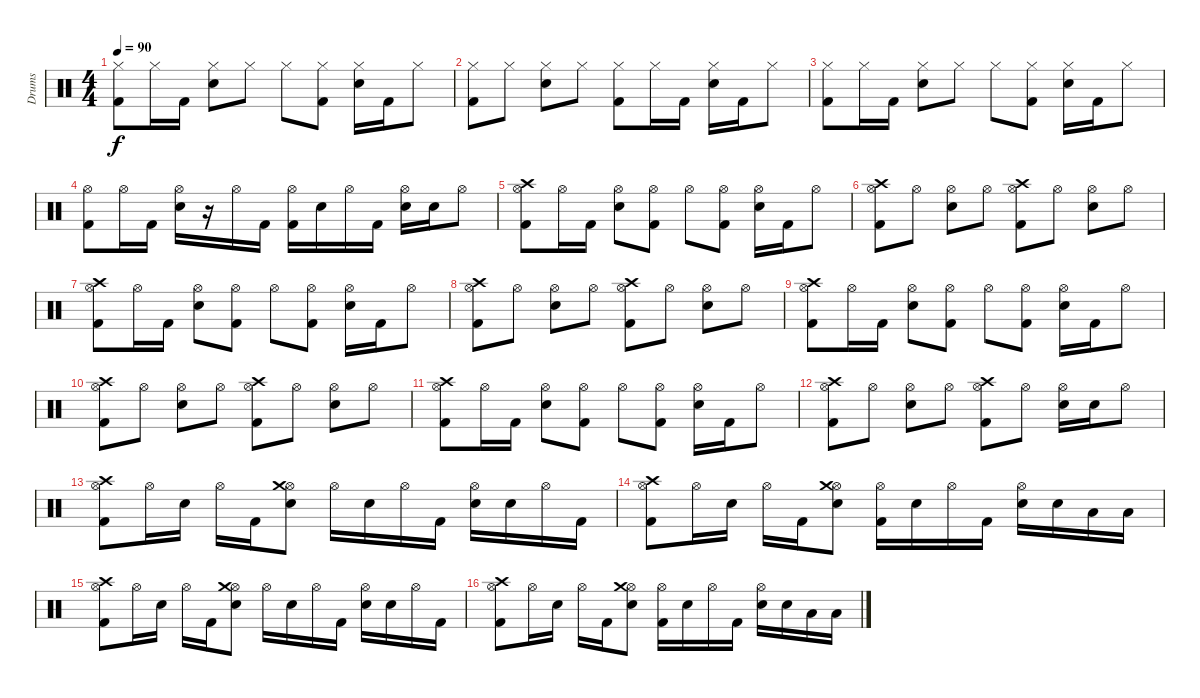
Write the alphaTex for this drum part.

\track ("Drums" "Drums") {instrument percussion}
\staff {score}
\articulation defaults
\ts (4 4)
\tempo 90
\clef neutral
\ks c
("Hi-Hat (closed)" "Kick (hit) 2").8{dy f} "Hi-Hat (closed)".16 "Kick (hit) 2".16 ("Hi-Hat (closed)" "Snare (hit) 2").8 "Hi-Hat (closed)".8 "Hi-Hat (closed)".8 ("Hi-Hat (closed)" "Kick (hit) 2").8 ("Hi-Hat (closed)" "Snare (hit) 2").16 "Kick (hit) 2".16 "Hi-Hat (closed)".8 |
("Hi-Hat (closed)" "Kick (hit) 2").8 "Hi-Hat (closed)".8 ("Hi-Hat (closed)" "Snare (hit) 2").8 "Hi-Hat (closed)".8 ("Hi-Hat (closed)" "Kick (hit) 2").8 "Hi-Hat (closed)".16 "Kick (hit) 2".16 ("Hi-Hat (closed)" "Snare (hit) 2").16 "Kick (hit) 2".16 "Hi-Hat (closed)".8 |
("Hi-Hat (closed)" "Kick (hit) 2").8 "Hi-Hat (closed)".16 "Kick (hit) 2".16 ("Hi-Hat (closed)" "Snare (hit) 2").8 "Hi-Hat (closed)".8 "Hi-Hat (closed)".8 ("Hi-Hat (closed)" "Kick (hit) 2").8 ("Hi-Hat (closed)" "Snare (hit) 2").16 "Kick (hit) 2".16 "Hi-Hat (closed)".8 |
("Hi-Hat (open)" "Kick (hit) 2").8 "Hi-Hat (open)".16 "Kick (hit) 2".16 ("Hi-Hat (open)" "Snare (hit) 2").16 r.16 "Hi-Hat (open)".16 "Kick (hit) 2".16 ("Hi-Hat (open)" "Kick (hit) 2").16 "Snare (hit) 2".16 "Hi-Hat (open)".16 "Kick (hit) 2".16 ("Hi-Hat (open)" "Snare (hit) 2").16 "Snare (hit) 2".16 "Hi-Hat (open)".8 |
("Crash high (hit)" "Hi-Hat (open)" "Kick (hit) 2").8 "Hi-Hat (open)".16 "Kick (hit) 2".16 ("Hi-Hat (open)" "Snare (hit) 2").8 ("Hi-Hat (open)" "Kick (hit) 2").8 "Hi-Hat (open)".8 ("Kick (hit) 2" "Hi-Hat (open)").8 ("Snare (hit) 2" "Hi-Hat (open)").16 "Kick (hit) 2".16 "Hi-Hat (open)".8 |
("Crash high (hit)" "Hi-Hat (open)" "Kick (hit) 2").8 "Hi-Hat (open)".8 ("Snare (hit) 2" "Hi-Hat (open)").8 "Hi-Hat (open)".8 ("Crash high (hit)" "Kick (hit) 2" "Hi-Hat (open)").8 "Hi-Hat (open)".8 ("Snare (hit) 2" "Hi-Hat (open)").8 "Hi-Hat (open)".8 |
("Crash high (hit)" "Hi-Hat (open)" "Kick (hit) 2").8 "Hi-Hat (open)".16 "Kick (hit) 2".16 ("Hi-Hat (open)" "Snare (hit) 2").8 ("Hi-Hat (open)" "Kick (hit) 2").8 "Hi-Hat (open)".8 ("Kick (hit) 2" "Hi-Hat (open)").8 ("Snare (hit) 2" "Hi-Hat (open)").16 "Kick (hit) 2".16 "Hi-Hat (open)".8 |
("Crash high (hit)" "Hi-Hat (open)" "Kick (hit) 2").8 "Hi-Hat (open)".8 ("Snare (hit) 2" "Hi-Hat (open)").8 "Hi-Hat (open)".8 ("Crash high (hit)" "Kick (hit) 2" "Hi-Hat (open)").8 "Hi-Hat (open)".8 ("Snare (hit) 2" "Hi-Hat (open)").8 "Hi-Hat (open)".8 |
("Crash high (hit)" "Hi-Hat (open)" "Kick (hit) 2").8 "Hi-Hat (open)".16 "Kick (hit) 2".16 ("Hi-Hat (open)" "Snare (hit) 2").8 ("Hi-Hat (open)" "Kick (hit) 2").8 "Hi-Hat (open)".8 ("Kick (hit) 2" "Hi-Hat (open)").8 ("Snare (hit) 2" "Hi-Hat (open)").16 "Kick (hit) 2".16 "Hi-Hat (open)".8 |
("Crash high (hit)" "Hi-Hat (open)" "Kick (hit) 2").8 "Hi-Hat (open)".8 ("Snare (hit) 2" "Hi-Hat (open)").8 "Hi-Hat (open)".8 ("Crash high (hit)" "Kick (hit) 2" "Hi-Hat (open)").8 "Hi-Hat (open)".8 ("Snare (hit) 2" "Hi-Hat (open)").8 "Hi-Hat (open)".8 |
("Crash high (hit)" "Hi-Hat (open)" "Kick (hit) 2").8 "Hi-Hat (open)".16 "Kick (hit) 2".16 ("Hi-Hat (open)" "Snare (hit) 2").8 ("Hi-Hat (open)" "Kick (hit) 2").8 "Hi-Hat (open)".8 ("Kick (hit) 2" "Hi-Hat (open)").8 ("Snare (hit) 2" "Hi-Hat (open)").16 "Kick (hit) 2".16 "Hi-Hat (open)".8 |
("Crash high (hit)" "Hi-Hat (open)" "Kick (hit) 2").8 "Hi-Hat (open)".8 ("Snare (hit) 2" "Hi-Hat (open)").8 "Hi-Hat (open)".8 ("Crash high (hit)" "Kick (hit) 2" "Hi-Hat (open)").8 "Hi-Hat (open)".8 ("Hi-Hat (open)" "Snare (hit) 2").16 "Snare (hit) 2".16 "Hi-Hat (open)".8 |
("Crash high (hit)" "Hi-Hat (open)" "Kick (hit) 2").8 "Hi-Hat (open)".16 "Snare (hit) 2".16 "Hi-Hat (open)".16 "Kick (hit) 2".16 ("Snare (hit) 2" "Hi-Hat (open)" "Crash medium (hit)").8 "Hi-Hat (open)".16 "Snare (hit) 2".16 "Hi-Hat (open)".16 "Kick (hit) 2".16 ("Hi-Hat (open)" "Snare (hit) 2").16 "Snare (hit) 2".16 "Hi-Hat (open)".16 "Kick (hit) 2".16 |
("Crash high (hit)" "Hi-Hat (open)" "Kick (hit) 2").8 "Hi-Hat (open)".16 "Snare (hit) 2".16 "Hi-Hat (open)".16 "Kick (hit) 2".16 ("Snare (hit) 2" "Hi-Hat (open)" "Crash medium (hit)").8 ("Hi-Hat (open)" "Kick (hit) 2").16 "Snare (hit) 2".16 "Hi-Hat (open)".16 "Kick (hit) 2".16 ("Hi-Hat (open)" "Snare (hit) 2").16 "Snare (hit) 2".16 "Low Tom (hit)".16 "Low Floor Tom (hit)".16 |
("Crash high (hit)" "Hi-Hat (open)" "Kick (hit) 2").8 "Hi-Hat (open)".16 "Snare (hit) 2".16 "Hi-Hat (open)".16 "Kick (hit) 2".16 ("Snare (hit) 2" "Hi-Hat (open)" "Crash medium (hit)").8 "Hi-Hat (open)".16 "Snare (hit) 2".16 "Hi-Hat (open)".16 "Kick (hit) 2".16 ("Hi-Hat (open)" "Snare (hit) 2").16 "Snare (hit) 2".16 "Hi-Hat (open)".16 "Kick (hit) 2".16 |
("Crash high (hit)" "Hi-Hat (open)" "Kick (hit) 2").8 "Hi-Hat (open)".16 "Snare (hit) 2".16 "Hi-Hat (open)".16 "Kick (hit) 2".16 ("Snare (hit) 2" "Hi-Hat (open)" "Crash medium (hit)").8 ("Hi-Hat (open)" "Kick (hit) 2").16 "Snare (hit) 2".16 "Hi-Hat (open)".16 "Kick (hit) 2".16 ("Hi-Hat (open)" "Snare (hit) 2").16 "Snare (hit) 2".16 "Low Tom (hit)".16 "Low Floor Tom (hit)".16
